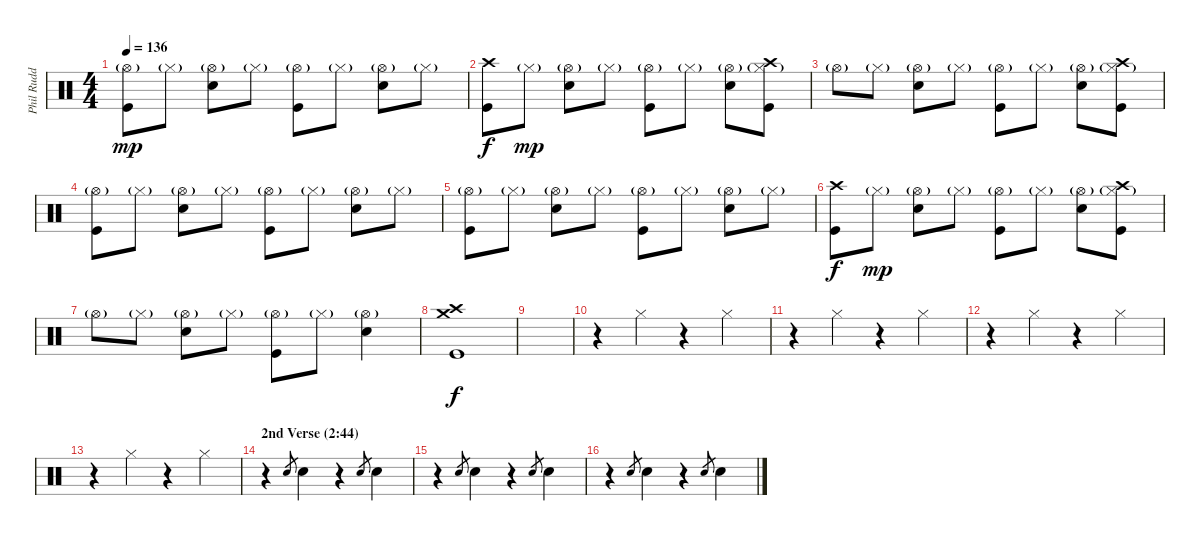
\track ("Phil Rudd" "Phil Rudd") {instrument percussion}
\staff {score}
\articulation defaults
\ts (4 4)
\tempo 136
\clef neutral
\ks c
("Hi-Hat (open)"{g} "Kick (hit)").8{dy mp} "Hi-Hat (closed)"{g}.8 ("Hi-Hat (open)"{g} "Electric Snare (hit)").8 "Hi-Hat (closed)"{g}.8 ("Hi-Hat (open)"{g} "Kick (hit)").8 "Hi-Hat (closed)"{g}.8 ("Hi-Hat (open)"{g} "Electric Snare (hit)").8 "Hi-Hat (closed)"{g}.8 |
("Crash high (hit)" "Kick (hit)").8{dy f} "Hi-Hat (closed)"{g}.8{dy mp} ("Hi-Hat (open)"{g} "Electric Snare (hit)").8 "Hi-Hat (closed)"{g}.8 ("Hi-Hat (open)"{g} "Kick (hit)").8 "Hi-Hat (closed)"{g}.8 ("Hi-Hat (open)"{g} "Electric Snare (hit)").8 ("Crash high (hit)" "Hi-Hat (closed)"{g} "Kick (hit)").8 |
"Hi-Hat (open)"{g}.8 "Hi-Hat (closed)"{g}.8 ("Hi-Hat (open)"{g} "Electric Snare (hit)").8 "Hi-Hat (closed)"{g}.8 ("Hi-Hat (open)"{g} "Kick (hit)").8 "Hi-Hat (closed)"{g}.8 ("Hi-Hat (open)"{g} "Electric Snare (hit)").8 ("Crash high (hit)" "Hi-Hat (closed)"{g} "Kick (hit)").8 |
("Hi-Hat (open)"{g} "Kick (hit)").8 "Hi-Hat (closed)"{g}.8 ("Hi-Hat (open)"{g} "Electric Snare (hit)").8 "Hi-Hat (closed)"{g}.8 ("Hi-Hat (open)"{g} "Kick (hit)").8 "Hi-Hat (closed)"{g}.8 ("Hi-Hat (open)"{g} "Electric Snare (hit)").8 "Hi-Hat (closed)"{g}.8 |
("Hi-Hat (open)"{g} "Kick (hit)").8 "Hi-Hat (closed)"{g}.8 ("Hi-Hat (open)"{g} "Electric Snare (hit)").8 "Hi-Hat (closed)"{g}.8 ("Hi-Hat (open)"{g} "Kick (hit)").8 "Hi-Hat (closed)"{g}.8 ("Hi-Hat (open)"{g} "Electric Snare (hit)").8 "Hi-Hat (closed)"{g}.8 |
("Crash high (hit)" "Kick (hit)").8{dy f} "Hi-Hat (closed)"{g}.8{dy mp} ("Hi-Hat (open)"{g} "Electric Snare (hit)").8 "Hi-Hat (closed)"{g}.8 ("Hi-Hat (open)"{g} "Kick (hit)").8 "Hi-Hat (closed)"{g}.8 ("Hi-Hat (open)"{g} "Electric Snare (hit)").8 ("Crash high (hit)" "Hi-Hat (closed)"{g} "Kick (hit)").8 |
"Hi-Hat (open)"{g}.8 "Hi-Hat (closed)"{g}.8 ("Hi-Hat (open)"{g} "Electric Snare (hit)").8 "Hi-Hat (closed)"{g}.8 ("Hi-Hat (open)"{g} "Kick (hit)").8 "Hi-Hat (closed)"{g}.8 ("Hi-Hat (open)"{g} "Electric Snare (hit)").4 |
("Crash high (hit)" "Crash medium (hit)" "Kick (hit)").1{dy f} |
|
r.4 "Hi-Hat (closed)".4 r.4 "Hi-Hat (closed)".4 |
r.4 "Hi-Hat (closed)".4 r.4 "Hi-Hat (closed)".4 |
r.4 "Hi-Hat (closed)".4 r.4 "Hi-Hat (closed)".4 |
r.4 "Hi-Hat (closed)".4 r.4 "Hi-Hat (closed)".4 |
\section ("" "2nd Verse (2:44)")
r.4 "Electric Snare (hit)".8{gr} "Electric Snare (hit)".4 r.4 "Electric Snare (hit)".8{gr} "Electric Snare (hit)".4 |
r.4 "Electric Snare (hit)".8{gr} "Electric Snare (hit)".4 r.4 "Electric Snare (hit)".8{gr} "Electric Snare (hit)".4 |
r.4 "Electric Snare (hit)".8{gr} "Electric Snare (hit)".4 r.4 "Electric Snare (hit)".8{gr} "Electric Snare (hit)".4
